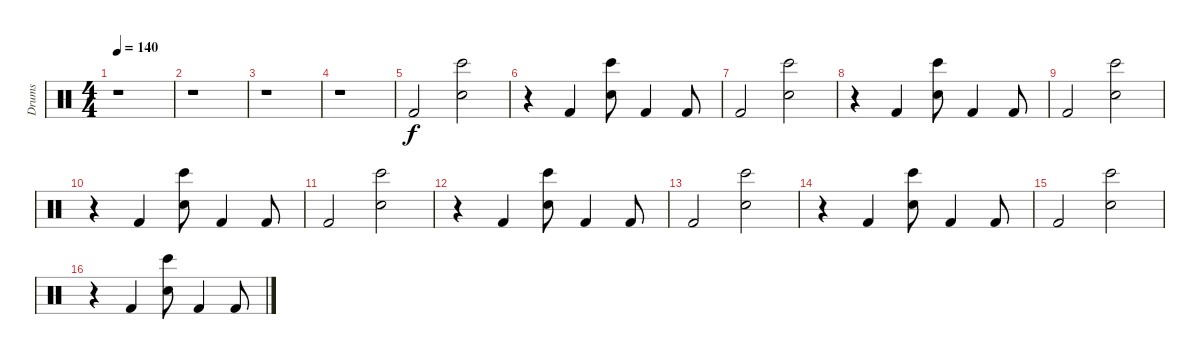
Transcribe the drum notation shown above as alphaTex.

\track ("Drums" "Drums") {instrument percussion}
\staff {score}
\articulation defaults
\ts (4 4)
\tempo 140
\clef neutral
\ks c
r.1{dy f} |
r.1 |
r.1 |
r.1 |
"Kick (hit) 2".2 ("Bongo High (hit)" "Snare (hit) 2").2 |
r.4 "Kick (hit) 2".4 ("Bongo High (hit)" "Snare (hit) 2").8 "Kick (hit) 2".4 "Kick (hit) 2".8 |
"Kick (hit) 2".2 ("Bongo High (hit)" "Snare (hit) 2").2 |
r.4 "Kick (hit) 2".4 ("Bongo High (hit)" "Snare (hit) 2").8 "Kick (hit) 2".4 "Kick (hit) 2".8 |
"Kick (hit) 2".2 ("Bongo High (hit)" "Snare (hit) 2").2 |
r.4 "Kick (hit) 2".4 ("Bongo High (hit)" "Snare (hit) 2").8 "Kick (hit) 2".4 "Kick (hit) 2".8 |
"Kick (hit) 2".2 ("Bongo High (hit)" "Snare (hit) 2").2 |
r.4 "Kick (hit) 2".4 ("Bongo High (hit)" "Snare (hit) 2").8 "Kick (hit) 2".4 "Kick (hit) 2".8 |
"Kick (hit) 2".2 ("Bongo High (hit)" "Snare (hit) 2").2 |
r.4 "Kick (hit) 2".4 ("Bongo High (hit)" "Snare (hit) 2").8 "Kick (hit) 2".4 "Kick (hit) 2".8 |
"Kick (hit) 2".2 ("Bongo High (hit)" "Snare (hit) 2").2 |
r.4 "Kick (hit) 2".4 ("Bongo High (hit)" "Snare (hit) 2").8 "Kick (hit) 2".4 "Kick (hit) 2".8
